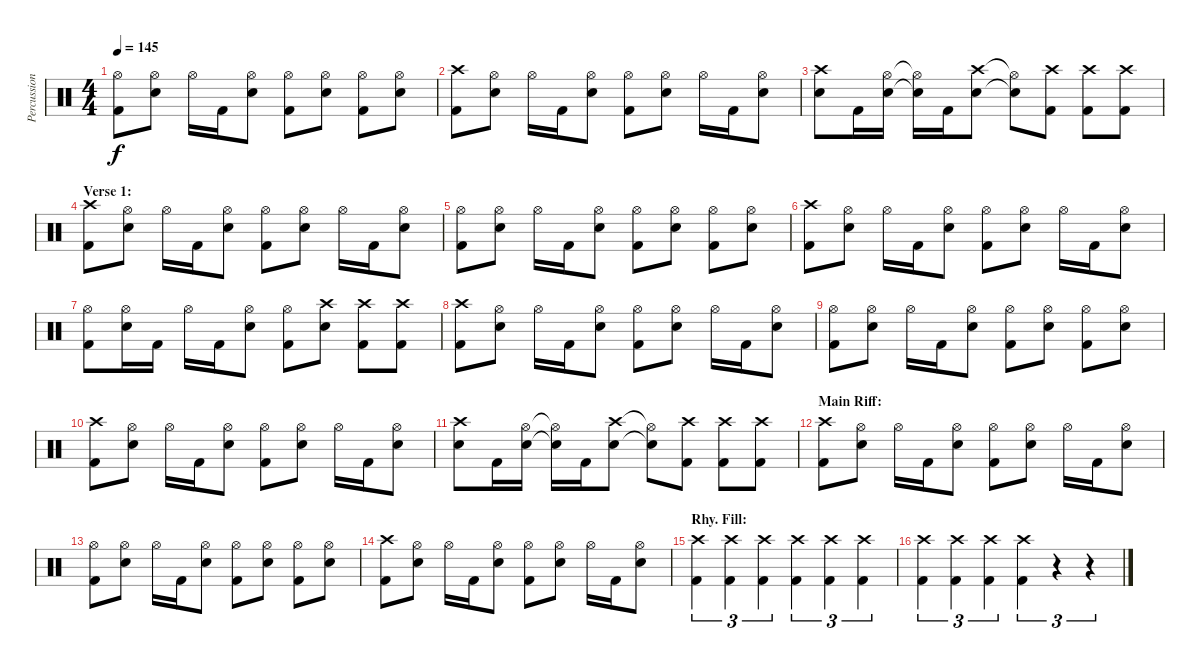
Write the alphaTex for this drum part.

\track ("Percussion" "Percussion") {instrument percussion}
\staff {score}
\articulation defaults
\ts (4 4)
\tempo 145
\clef neutral
\ks c
("Hi-Hat (open)" "Kick (hit) 2").8{dy f} ("Hi-Hat (open)" "Electric Snare (hit)").8 "Hi-Hat (open)".16 "Kick (hit) 2".16 ("Hi-Hat (open)" "Electric Snare (hit)").8 ("Hi-Hat (open)" "Kick (hit) 2").8 ("Hi-Hat (open)" "Electric Snare (hit)").8 ("Hi-Hat (open)" "Kick (hit) 2").8 ("Hi-Hat (open)" "Electric Snare (hit)").8 |
("Crash high (hit)" "Kick (hit) 2").8 ("Hi-Hat (open)" "Electric Snare (hit)").8 "Hi-Hat (open)".16 "Kick (hit) 2".16 ("Hi-Hat (open)" "Electric Snare (hit)").8 ("Hi-Hat (open)" "Kick (hit) 2").8 ("Hi-Hat (open)" "Electric Snare (hit)").8 "Hi-Hat (open)".16 "Kick (hit) 2".16 ("Hi-Hat (open)" "Electric Snare (hit)").8 |
("Crash high (hit)" "Electric Snare (hit)").8 "Kick (hit) 2".16 ("Hi-Hat (open)" "Electric Snare (hit)").16 ("Hi-Hat (open)"{t} "Snare (hit)"{t}).16 "Kick (hit) 2".16 ("Crash high (hit)" "Electric Snare (hit)").8 ("Hi-Hat (open)"{t} "Snare (hit)"{t}).8 ("Crash high (hit)" "Kick (hit) 2").8 ("Crash high (hit)" "Kick (hit) 2").8 ("Crash high (hit)" "Kick (hit) 2").8 |
\section ("" "Verse 1:")
("Crash high (hit)" "Kick (hit) 2").8 ("Hi-Hat (open)" "Electric Snare (hit)").8 "Hi-Hat (open)".16 "Kick (hit) 2".16 ("Hi-Hat (open)" "Electric Snare (hit)").8 ("Hi-Hat (open)" "Kick (hit) 2").8 ("Hi-Hat (open)" "Electric Snare (hit)").8 "Hi-Hat (open)".16 "Kick (hit) 2".16 ("Hi-Hat (open)" "Electric Snare (hit)").8 |
("Hi-Hat (open)" "Kick (hit) 2").8 ("Hi-Hat (open)" "Electric Snare (hit)").8 "Hi-Hat (open)".16 "Kick (hit) 2".16 ("Hi-Hat (open)" "Electric Snare (hit)").8 ("Hi-Hat (open)" "Kick (hit) 2").8 ("Hi-Hat (open)" "Electric Snare (hit)").8 ("Hi-Hat (open)" "Kick (hit) 2").8 ("Hi-Hat (open)" "Electric Snare (hit)").8 |
("Crash high (hit)" "Kick (hit) 2").8 ("Hi-Hat (open)" "Electric Snare (hit)").8 "Hi-Hat (open)".16 "Kick (hit) 2".16 ("Hi-Hat (open)" "Electric Snare (hit)").8 ("Hi-Hat (open)" "Kick (hit) 2").8 ("Hi-Hat (open)" "Electric Snare (hit)").8 "Hi-Hat (open)".16 "Kick (hit) 2".16 ("Hi-Hat (open)" "Electric Snare (hit)").8 |
("Hi-Hat (open)" "Kick (hit) 2").8 ("Hi-Hat (open)" "Electric Snare (hit)").16 "Kick (hit) 2".16 "Hi-Hat (open)".16 "Kick (hit) 2".16 ("Hi-Hat (open)" "Electric Snare (hit)").8 ("Hi-Hat (open)" "Kick (hit) 2").8 ("Crash high (hit)" "Electric Snare (hit)").8 ("Crash high (hit)" "Kick (hit) 2").8 ("Crash high (hit)" "Kick (hit) 2").8 |
("Crash high (hit)" "Kick (hit) 2").8 ("Hi-Hat (open)" "Electric Snare (hit)").8 "Hi-Hat (open)".16 "Kick (hit) 2".16 ("Hi-Hat (open)" "Electric Snare (hit)").8 ("Hi-Hat (open)" "Kick (hit) 2").8 ("Hi-Hat (open)" "Electric Snare (hit)").8 "Hi-Hat (open)".16 "Kick (hit) 2".16 ("Hi-Hat (open)" "Electric Snare (hit)").8 |
("Hi-Hat (open)" "Kick (hit) 2").8 ("Hi-Hat (open)" "Electric Snare (hit)").8 "Hi-Hat (open)".16 "Kick (hit) 2".16 ("Hi-Hat (open)" "Electric Snare (hit)").8 ("Hi-Hat (open)" "Kick (hit) 2").8 ("Hi-Hat (open)" "Electric Snare (hit)").8 ("Hi-Hat (open)" "Kick (hit) 2").8 ("Hi-Hat (open)" "Electric Snare (hit)").8 |
("Crash high (hit)" "Kick (hit) 2").8 ("Hi-Hat (open)" "Electric Snare (hit)").8 "Hi-Hat (open)".16 "Kick (hit) 2".16 ("Hi-Hat (open)" "Electric Snare (hit)").8 ("Hi-Hat (open)" "Kick (hit) 2").8 ("Hi-Hat (open)" "Electric Snare (hit)").8 "Hi-Hat (open)".16 "Kick (hit) 2".16 ("Hi-Hat (open)" "Electric Snare (hit)").8 |
("Crash high (hit)" "Electric Snare (hit)").8 "Kick (hit) 2".16 ("Hi-Hat (open)" "Electric Snare (hit)").16 ("Hi-Hat (open)"{t} "Snare (hit)"{t}).16 "Kick (hit) 2".16 ("Crash high (hit)" "Electric Snare (hit)").8 ("Hi-Hat (open)"{t} "Snare (hit)"{t}).8 ("Crash high (hit)" "Kick (hit) 2").8 ("Crash high (hit)" "Kick (hit) 2").8 ("Crash high (hit)" "Kick (hit) 2").8 |
\section ("" "Main Riff:")
("Crash high (hit)" "Kick (hit) 2").8 ("Hi-Hat (open)" "Electric Snare (hit)").8 "Hi-Hat (open)".16 "Kick (hit) 2".16 ("Hi-Hat (open)" "Electric Snare (hit)").8 ("Hi-Hat (open)" "Kick (hit) 2").8 ("Hi-Hat (open)" "Electric Snare (hit)").8 "Hi-Hat (open)".16 "Kick (hit) 2".16 ("Hi-Hat (open)" "Electric Snare (hit)").8 |
("Hi-Hat (open)" "Kick (hit) 2").8 ("Hi-Hat (open)" "Electric Snare (hit)").8 "Hi-Hat (open)".16 "Kick (hit) 2".16 ("Hi-Hat (open)" "Electric Snare (hit)").8 ("Hi-Hat (open)" "Kick (hit) 2").8 ("Hi-Hat (open)" "Electric Snare (hit)").8 ("Hi-Hat (open)" "Kick (hit) 2").8 ("Hi-Hat (open)" "Electric Snare (hit)").8 |
("Crash high (hit)" "Kick (hit) 2").8 ("Hi-Hat (open)" "Electric Snare (hit)").8 "Hi-Hat (open)".16 "Kick (hit) 2".16 ("Hi-Hat (open)" "Electric Snare (hit)").8 ("Hi-Hat (open)" "Kick (hit) 2").8 ("Hi-Hat (open)" "Electric Snare (hit)").8 "Hi-Hat (open)".16 "Kick (hit) 2".16 ("Hi-Hat (open)" "Electric Snare (hit)").8 |
\section ("" "Rhy. Fill:")
("Crash high (hit)" "Kick (hit) 2").4{tu (3 2)} ("Crash high (hit)" "Kick (hit) 2").4{tu (3 2)} ("Crash high (hit)" "Kick (hit) 2").4{tu (3 2)} ("Crash high (hit)" "Kick (hit) 2").4{tu (3 2)} ("Crash high (hit)" "Kick (hit) 2").4{tu (3 2)} ("Crash high (hit)" "Kick (hit) 2").4{tu (3 2)} |
("Crash high (hit)" "Kick (hit) 2").4{tu (3 2)} ("Crash high (hit)" "Kick (hit) 2").4{tu (3 2)} ("Crash high (hit)" "Kick (hit) 2").4{tu (3 2)} ("Crash high (hit)" "Kick (hit) 2").4{tu (3 2)} r.4{tu (3 2)} r.4{tu (3 2)}
